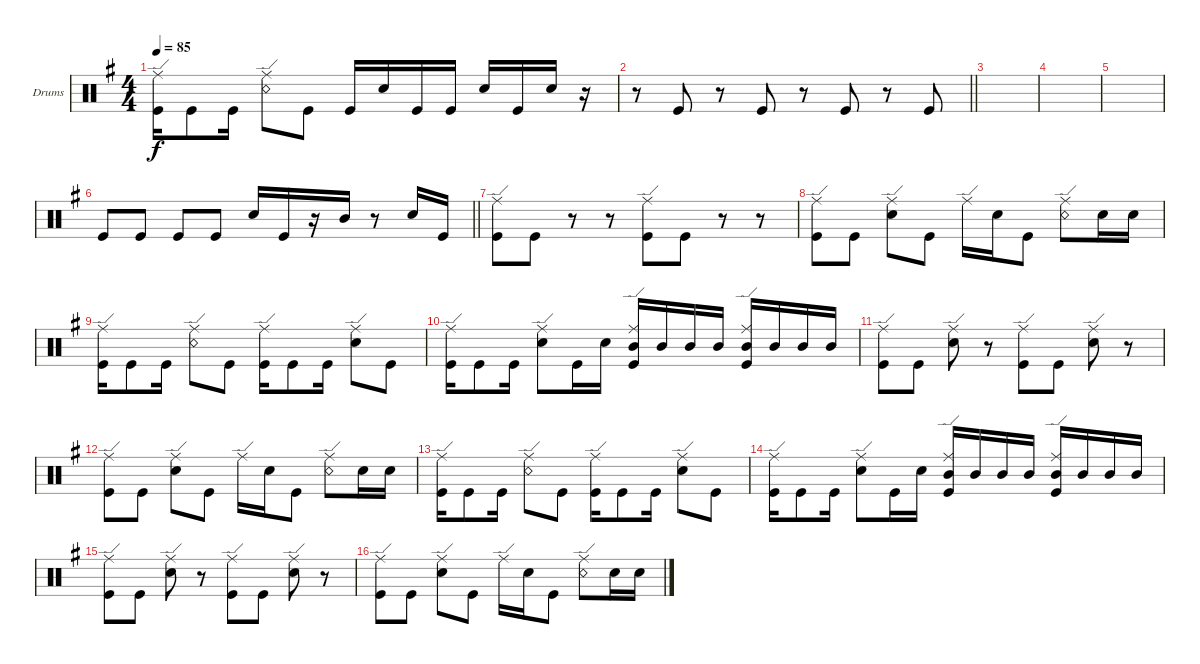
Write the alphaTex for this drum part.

\bracketExtendMode groupsimilarinstruments
\firstSystemTrackNameOrientation horizontal
\otherSystemsTrackNameOrientation horizontal
\track ("Drumkit" "Drums") {instrument percussion}
\staff {score}
\articulation defaults
\ts (4 4)
\tempo 85
\clef neutral
\scale
0.333333
\ks eminor
("Kick (hit)" "Ride (edge)").16{dy f} "Kick (hit)".8 "Kick (hit)".16 ("Snare (rim shot)" "Ride (edge)").8 "Kick (hit)".8 "Kick (hit)".16 "Snare (hit) 2".16 "Kick (hit)".16 "Kick (hit)".16 "Snare (hit) 2".16 "Kick (hit)".16 "Snare (hit) 2".16 r.16 |
\scale
0.333333
\barLineRight lightlight
r.8 "Kick (hit)".8 r.8 "Kick (hit)".8 r.8 "Kick (hit)".8 r.8 "Kick (hit)".8 |
\scale
0.333333 |
\scale
0.333333 |
\scale
0.333333 |
\scale
0.333333
\barLineRight lightlight "Kick (hit)".8 "Kick (hit)".8 "Kick (hit)".8 "Kick (hit)".8 "Snare (hit) 2".16 "Kick (hit)".16
r.16 "Mid Tom (hit)".16 r.8 "Snare (hit) 2".16 "Kick (hit)".16 |
\scale
0.333333 ("Kick (hit)" "Ride (edge)").8 "Kick (hit)".8 r.8 r.8 ("Kick (hit)" "Ride (edge)").8 "Kick (hit)".8 r.8 r.8 |
\scale
0.333333 ("Kick (hit)" "Ride (edge)").8 "Kick (hit)".8 ("Snare (hit) 2" "Ride (edge)").8 "Kick (hit)".8 "Ride (edge)".16 "Snare (hit) 2".16 "Kick (hit)".8 ("Snare (rim shot)" "Ride (edge)").8 "Snare (hit) 2".16 "Snare (hit) 2".16 |
\scale
0.333333 ("Kick (hit)" "Ride (edge)").16 "Kick (hit)".8 "Kick (hit)".16 ("Snare (rim shot)" "Ride (edge)").8 "Kick (hit)".8 ("Kick (hit)" "Ride (edge)").16 "Kick (hit)".8 "Kick (hit)".16 ("Snare (hit) 2" "Ride (edge)").8 "Kick (hit)".8 |
\scale
0.333333 ("Kick (hit)" "Ride (edge)").16 "Kick (hit)".8 "Kick (hit)".16 ("Snare (hit) 2" "Ride (edge)").8 "Kick (hit)".16 "Snare (hit) 2".16 ("Mid Tom (hit)" "Kick (hit)" "Ride (edge)").16 "Mid Tom (hit)".16 "Mid Tom (hit)".16 "Mid Tom (hit)".16 ("Mid Tom (hit)" "Kick (hit)" "Ride (edge)").16 "Mid Tom (hit)".16 "Mid Tom (hit)".16 "Mid Tom (hit)".16 |
\scale
0.333333 ("Kick (hit)" "Ride (edge)").8 "Kick (hit)".8 ("Snare (hit) 2" "Ride (edge)").8 r.8 ("Kick (hit)" "Ride (edge)").8 "Kick (hit)".8 ("Snare (hit) 2" "Ride (edge)").8 r.8 |
\scale
0.333333 ("Kick (hit)" "Ride (edge)").8 "Kick (hit)".8 ("Snare (hit) 2" "Ride (edge)").8 "Kick (hit)".8 "Ride (edge)".16 "Snare (hit) 2".16 "Kick (hit)".8 ("Snare (rim shot)" "Ride (edge)").8 "Snare (hit) 2".16 "Snare (hit) 2".16 |
\scale
0.333333 ("Kick (hit)" "Ride (edge)").16 "Kick (hit)".8 "Kick (hit)".16 ("Snare (rim shot)" "Ride (edge)").8 "Kick (hit)".8 ("Kick (hit)" "Ride (edge)").16 "Kick (hit)".8 "Kick (hit)".16 ("Snare (hit) 2" "Ride (edge)").8 "Kick (hit)".8 |
\scale
0.333333 ("Kick (hit)" "Ride (edge)").16 "Kick (hit)".8 "Kick (hit)".16 ("Snare (hit) 2" "Ride (edge)").8 "Kick (hit)".16 "Snare (hit) 2".16 ("Mid Tom (hit)" "Kick (hit)" "Ride (edge)").16 "Mid Tom (hit)".16 "Mid Tom (hit)".16 "Mid Tom (hit)".16 ("Mid Tom (hit)" "Kick (hit)" "Ride (edge)").16 "Mid Tom (hit)".16 "Mid Tom (hit)".16 "Mid Tom (hit)".16 |
\scale
0.333333 ("Kick (hit)" "Ride (edge)").8 "Kick (hit)".8 ("Snare (hit) 2" "Ride (edge)").8 r.8 ("Kick (hit)" "Ride (edge)").8 "Kick (hit)".8 ("Snare (hit) 2" "Ride (edge)").8 r.8 |
\scale
0.333333 ("Kick (hit)" "Ride (edge)").8 "Kick (hit)".8 ("Snare (hit) 2" "Ride (edge)").8 "Kick (hit)".8 "Ride (edge)".16 "Snare (hit) 2".16 "Kick (hit)".8 ("Snare (rim shot)" "Ride (edge)").8 "Snare (hit) 2".16 "Snare (hit) 2".16
